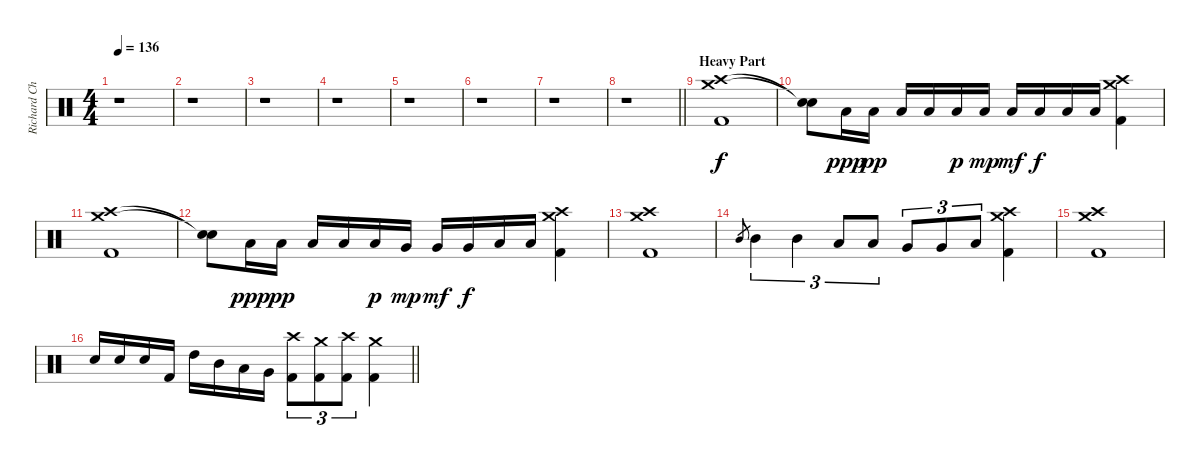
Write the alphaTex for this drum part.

\track ("Richard Christy" "Richard Ch") {instrument percussion}
\staff {score}
\articulation defaults
\ts (4 4)
\tempo 136
\clef neutral
\ks c
r.1{dy f} |
r.1 |
r.1 |
r.1 |
r.1 |
r.1 |
r.1 |
\barLineRight lightlight
r.1 |
\section ("" "Heavy Part")
("Crash high (hit)" "Crash medium (hit)" "Kick (hit) 2").1 |
("Snare (hit)"{t} "Snare (hit)"{t}).8 "Low Tom (hit)".16{dy ppp} "Low Tom (hit)".16{dy pp} "Low Tom (hit)".16 "Low Tom (hit)".16 "Low Tom (hit)".16{dy p} "Low Tom (hit)".16{dy mp} "Low Tom (hit)".16{dy mf} "Low Tom (hit)".16{dy f} "Low Tom (hit)".16 "Low Tom (hit)".16 ("Crash high (hit)" "Crash medium (hit)" "Kick (hit) 2").4 |
("Crash high (hit)" "Crash medium (hit)" "Kick (hit) 2").1 |
("Snare (hit)"{t} "Snare (hit)"{t}).8 "Low Tom (hit)".16{dy ppp} "Low Tom (hit)".16{dy pp} "Low Tom (hit)".16 "Low Tom (hit)".16 "Low Tom (hit)".16{dy p} "Very Low Tom (hit)".16{dy mp} "Very Low Tom (hit)".16{dy mf} "Very Low Tom (hit)".16{dy f} "Low Floor Tom (hit)".16 "Low Floor Tom (hit)".16 ("Crash high (hit)" "Crash medium (hit)" "Kick (hit) 2").4 |
("Crash high (hit)" "Crash medium (hit)" "Kick (hit) 2").1 |
"Mid Tom (hit)".8{gr} "Mid Tom (hit)".4{tu (3 2)} "Mid Tom (hit)".4{tu (3 2)} "Low Tom (hit)".8{tu (3 2)} "Low Tom (hit)".8{tu (3 2)} "Very Low Tom (hit)".8{tu (3 2)} "Very Low Tom (hit)".8{tu (3 2)} "Low Floor Tom (hit)".8{tu (3 2)} ("Crash high (hit)" "Crash medium (hit)" "Kick (hit) 2").4 |
("Crash high (hit)" "Crash medium (hit)" "Kick (hit) 2").1 |
\barLineRight lightlight "Snare (hit) 2".16 "Snare (hit) 2".16 "Snare (hit) 2".16 "Kick (hit) 2".16 "High Tom (hit)".16 "Mid Tom (hit)".16 "Low Tom (hit)".16 "Very Low Tom (hit)".16
("Crash high (hit)" "Kick (hit) 2").8{tu (3 2)} ("Crash medium (hit)" "Kick (hit) 2").8{tu (3 2)} ("Crash high (hit)" "Kick (hit) 2").8{tu (3 2)} ("Crash medium (hit)" "Kick (hit) 2").4
